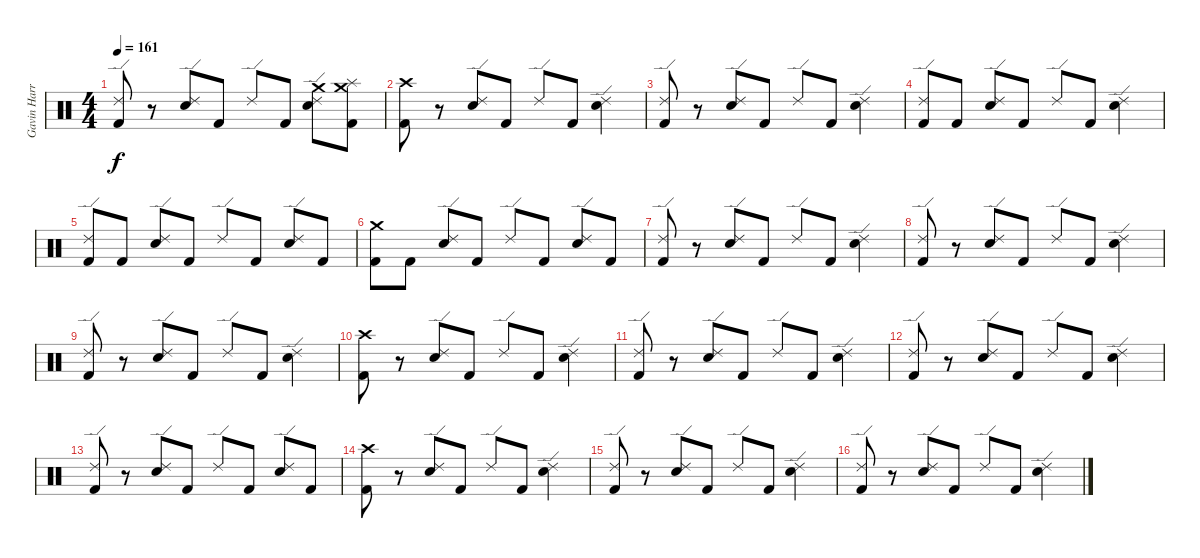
\track ("Gavin Harrison (Drums)" "Gavin Harr") {instrument percussion}
\staff {score}
\articulation defaults
\ts (4 4)
\tempo 161
\clef neutral
\ks c
("Ride (edge) 2" "Kick (hit) 2").8{dy f} r.8 ("Ride (edge) 2" "Electric Snare (hit)").8 "Kick (hit) 2".8 "Ride (edge) 2".8 "Kick (hit) 2".8 ("Crash medium (hit)" "Ride (edge) 2" "Electric Snare (hit)").8 ("Splash (hit)" "Crash medium (hit)" "Kick (hit) 2").8 |
("Crash high (hit)" "Kick (hit) 2").8 r.8 ("Ride (edge) 2" "Electric Snare (hit)").8 "Kick (hit) 2".8 "Ride (edge) 2".8 "Kick (hit) 2".8 ("Ride (edge) 2" "Electric Snare (hit)").4 |
("Ride (edge) 2" "Kick (hit) 2").8 r.8 ("Ride (edge) 2" "Electric Snare (hit)").8 "Kick (hit) 2".8 "Ride (edge) 2".8 "Kick (hit) 2".8 ("Ride (edge) 2" "Electric Snare (hit)").4 |
("Ride (edge) 2" "Kick (hit) 2").8 "Kick (hit) 2".8 ("Ride (edge) 2" "Electric Snare (hit)").8 "Kick (hit) 2".8 "Ride (edge) 2".8 "Kick (hit) 2".8 ("Ride (edge) 2" "Electric Snare (hit)").4 |
("Ride (edge) 2" "Kick (hit) 2").8 "Kick (hit) 2".8 ("Ride (edge) 2" "Electric Snare (hit)").8 "Kick (hit) 2".8 "Ride (edge) 2".8 "Kick (hit) 2".8 ("Ride (edge) 2" "Electric Snare (hit)").8 "Kick (hit) 2".8 |
("Crash medium (hit)" "Kick (hit) 2").8 "Kick (hit) 2".8 ("Ride (edge) 2" "Electric Snare (hit)").8 "Kick (hit) 2".8 "Ride (edge) 2".8 "Kick (hit) 2".8 ("Ride (edge) 2" "Electric Snare (hit)").8 "Kick (hit) 2".8 |
("Ride (edge) 2" "Kick (hit) 2").8 r.8 ("Ride (edge) 2" "Electric Snare (hit)").8 "Kick (hit) 2".8 "Ride (edge) 2".8 "Kick (hit) 2".8 ("Ride (edge) 2" "Electric Snare (hit)").4 |
("Ride (edge) 2" "Kick (hit) 2").8 r.8 ("Ride (edge) 2" "Electric Snare (hit)").8 "Kick (hit) 2".8 "Ride (edge) 2".8 "Kick (hit) 2".8 ("Ride (edge) 2" "Electric Snare (hit)").4 |
("Ride (edge) 2" "Kick (hit) 2").8 r.8 ("Ride (edge) 2" "Electric Snare (hit)").8 "Kick (hit) 2".8 "Ride (edge) 2".8 "Kick (hit) 2".8 ("Ride (edge) 2" "Electric Snare (hit)").4 |
("Crash high (hit)" "Kick (hit) 2").8 r.8 ("Ride (edge) 2" "Electric Snare (hit)").8 "Kick (hit) 2".8 "Ride (edge) 2".8 "Kick (hit) 2".8 ("Ride (edge) 2" "Electric Snare (hit)").4 |
("Ride (edge) 2" "Kick (hit) 2").8 r.8 ("Ride (edge) 2" "Electric Snare (hit)").8 "Kick (hit) 2".8 "Ride (edge) 2".8 "Kick (hit) 2".8 ("Ride (edge) 2" "Electric Snare (hit)").4 |
("Ride (edge) 2" "Kick (hit) 2").8 r.8 ("Ride (edge) 2" "Electric Snare (hit)").8 "Kick (hit) 2".8 "Ride (edge) 2".8 "Kick (hit) 2".8 ("Ride (edge) 2" "Electric Snare (hit)").4 |
("Ride (edge) 2" "Kick (hit) 2").8 r.8 ("Ride (edge) 2" "Electric Snare (hit)").8 "Kick (hit) 2".8 "Ride (edge) 2".8 "Kick (hit) 2".8 ("Ride (edge) 2" "Electric Snare (hit)").8 "Kick (hit) 2".8 |
("Crash high (hit)" "Kick (hit) 2").8 r.8 ("Ride (edge) 2" "Electric Snare (hit)").8 "Kick (hit) 2".8 "Ride (edge) 2".8 "Kick (hit) 2".8 ("Ride (edge) 2" "Electric Snare (hit)").4 |
("Ride (edge) 2" "Kick (hit) 2").8 r.8 ("Ride (edge) 2" "Electric Snare (hit)").8 "Kick (hit) 2".8 "Ride (edge) 2".8 "Kick (hit) 2".8 ("Ride (edge) 2" "Electric Snare (hit)").4 |
("Ride (edge) 2" "Kick (hit) 2").8 r.8 ("Ride (edge) 2" "Electric Snare (hit)").8 "Kick (hit) 2".8 "Ride (edge) 2".8 "Kick (hit) 2".8 ("Ride (edge) 2" "Electric Snare (hit)").4
